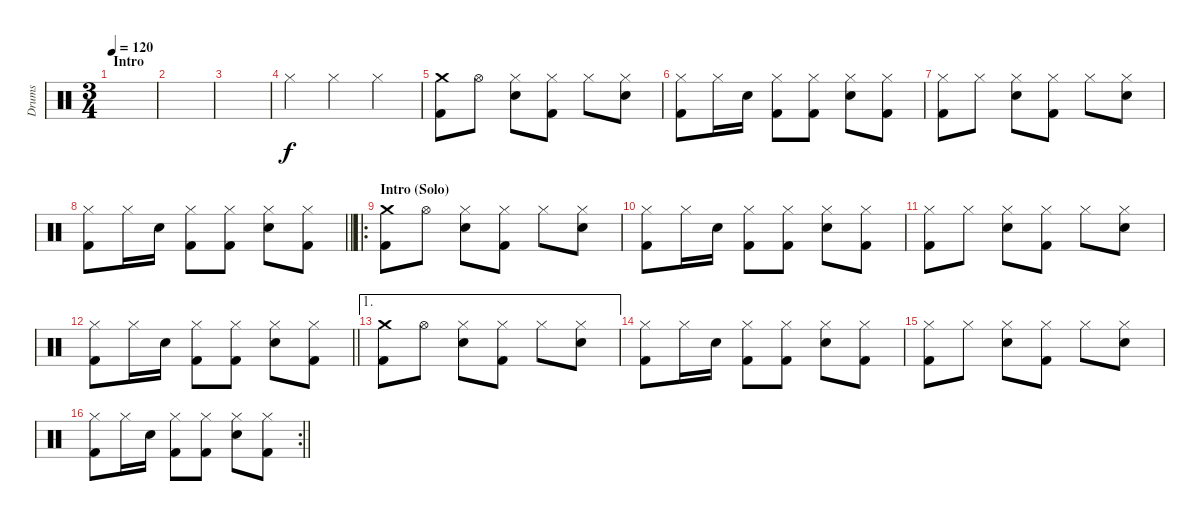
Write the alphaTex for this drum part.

\track ("Drums" "Drums") {instrument percussion}
\staff {score}
\articulation defaults
\ts (3 4)
\section ("" "Intro")
\tempo 120
\clef neutral
\ks c
|
|
|
"Hi-Hat (closed)".4 "Hi-Hat (closed)".4 "Hi-Hat (closed)".4 |
("Kick (hit) 2" "Crash medium (hit)").8 "Hi-Hat (open)".8 ("Electric Snare (hit)" "Hi-Hat (closed)").8 ("Kick (hit) 2" "Hi-Hat (closed)").8 "Hi-Hat (closed)".8 ("Electric Snare (hit)" "Hi-Hat (closed)").8 |
("Kick (hit) 2" "Hi-Hat (closed)").8 "Hi-Hat (closed)".16 "Electric Snare (hit)".16 ("Kick (hit) 2" "Hi-Hat (closed)").8 ("Kick (hit) 2" "Hi-Hat (closed)").8 ("Electric Snare (hit)" "Hi-Hat (closed)").8 ("Kick (hit) 2" "Hi-Hat (closed)").8 |
("Kick (hit) 2" "Hi-Hat (closed)").8 "Hi-Hat (closed)".8 ("Electric Snare (hit)" "Hi-Hat (closed)").8 ("Kick (hit) 2" "Hi-Hat (closed)").8 "Hi-Hat (closed)".8 ("Electric Snare (hit)" "Hi-Hat (closed)").8 |
\barLineRight lightlight
("Kick (hit) 2" "Hi-Hat (closed)").8 "Hi-Hat (closed)".16 "Electric Snare (hit)".16 ("Kick (hit) 2" "Hi-Hat (closed)").8 ("Kick (hit) 2" "Hi-Hat (closed)").8 ("Electric Snare (hit)" "Hi-Hat (closed)").8 ("Kick (hit) 2" "Hi-Hat (closed)").8 |
\ro
\section ("" "Intro (Solo)")
("Kick (hit) 2" "Crash medium (hit)").8 "Hi-Hat (open)".8 ("Electric Snare (hit)" "Hi-Hat (closed)").8 ("Kick (hit) 2" "Hi-Hat (closed)").8 "Hi-Hat (closed)".8 ("Electric Snare (hit)" "Hi-Hat (closed)").8 |
("Kick (hit) 2" "Hi-Hat (closed)").8 "Hi-Hat (closed)".16 "Electric Snare (hit)".16 ("Kick (hit) 2" "Hi-Hat (closed)").8 ("Kick (hit) 2" "Hi-Hat (closed)").8 ("Electric Snare (hit)" "Hi-Hat (closed)").8 ("Kick (hit) 2" "Hi-Hat (closed)").8 |
("Kick (hit) 2" "Hi-Hat (closed)").8 "Hi-Hat (closed)".8 ("Electric Snare (hit)" "Hi-Hat (closed)").8 ("Kick (hit) 2" "Hi-Hat (closed)").8 "Hi-Hat (closed)".8 ("Electric Snare (hit)" "Hi-Hat (closed)").8 |
\barLineRight lightlight
("Kick (hit) 2" "Hi-Hat (closed)").8 "Hi-Hat (closed)".16 "Electric Snare (hit)".16 ("Kick (hit) 2" "Hi-Hat (closed)").8 ("Kick (hit) 2" "Hi-Hat (closed)").8 ("Electric Snare (hit)" "Hi-Hat (closed)").8 ("Kick (hit) 2" "Hi-Hat (closed)").8 |
\ae 1
("Kick (hit) 2" "Crash medium (hit)").8 "Hi-Hat (open)".8 ("Electric Snare (hit)" "Hi-Hat (closed)").8 ("Kick (hit) 2" "Hi-Hat (closed)").8 "Hi-Hat (closed)".8 ("Electric Snare (hit)" "Hi-Hat (closed)").8 |
("Kick (hit) 2" "Hi-Hat (closed)").8 "Hi-Hat (closed)".16 "Electric Snare (hit)".16 ("Kick (hit) 2" "Hi-Hat (closed)").8 ("Kick (hit) 2" "Hi-Hat (closed)").8 ("Electric Snare (hit)" "Hi-Hat (closed)").8 ("Kick (hit) 2" "Hi-Hat (closed)").8 |
("Kick (hit) 2" "Hi-Hat (closed)").8 "Hi-Hat (closed)".8 ("Electric Snare (hit)" "Hi-Hat (closed)").8 ("Kick (hit) 2" "Hi-Hat (closed)").8 "Hi-Hat (closed)".8 ("Electric Snare (hit)" "Hi-Hat (closed)").8 |
\rc 2
\barLineRight lightlight
("Kick (hit) 2" "Hi-Hat (closed)").8 "Hi-Hat (closed)".16 "Electric Snare (hit)".16 ("Kick (hit) 2" "Hi-Hat (closed)").8 ("Kick (hit) 2" "Hi-Hat (closed)").8 ("Electric Snare (hit)" "Hi-Hat (closed)").8 ("Kick (hit) 2" "Hi-Hat (closed)").8
